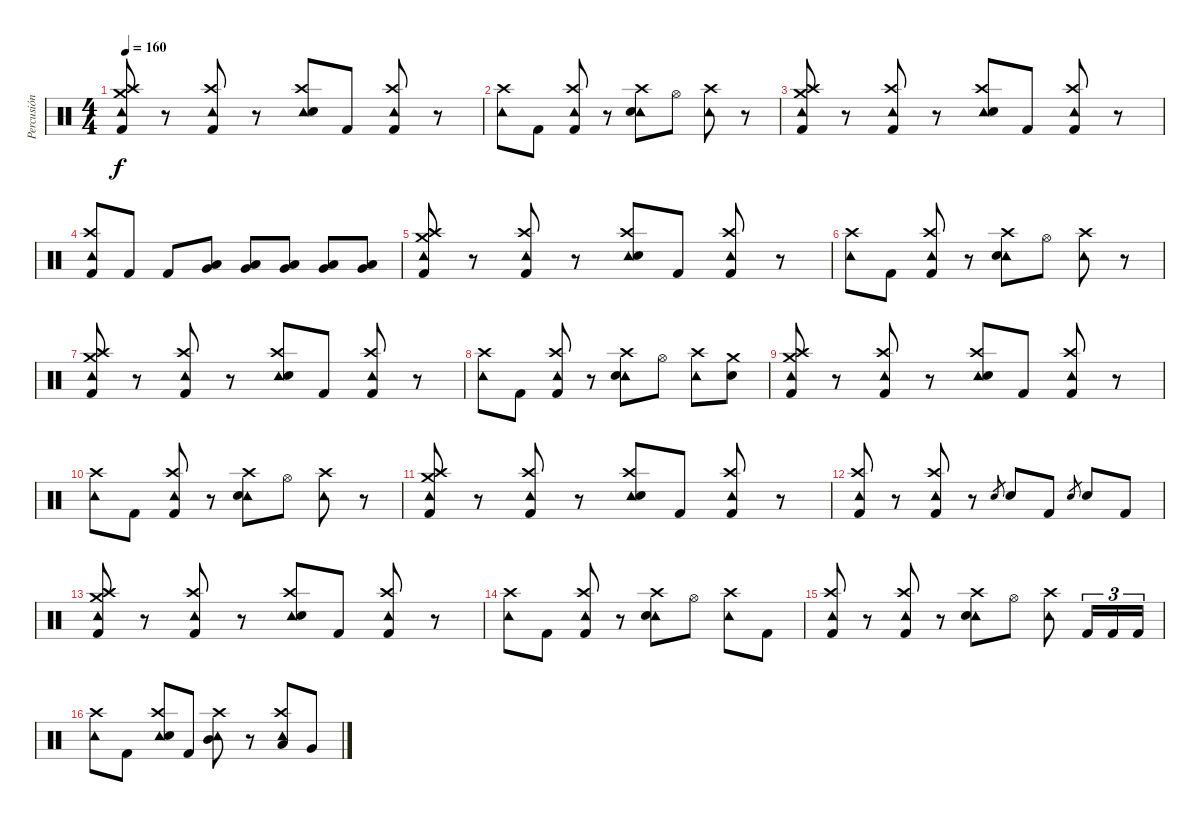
\track ("Percusión" "Percusión") {instrument percussion}
\staff {score}
\articulation defaults
\ts (4 4)
\tempo 160
\clef neutral
\ks c
("Tambourine (hit)" "Crash medium (hit)" "Crash high (hit)" "Kick (hit) 2").8{dy f} r.8 ("Tambourine (hit)" "Crash high (hit)" "Kick (hit) 2").8 r.8 ("Tambourine (hit)" "Crash high (hit)" "Electric Snare (hit)").8 "Kick (hit) 2".8 ("Tambourine (hit)" "Crash high (hit)" "Kick (hit) 2").8 r.8 |
("Tambourine (hit)" "Crash high (hit)").8 "Kick (hit) 2".8 ("Tambourine (hit)" "Crash high (hit)" "Kick (hit) 2").8 r.8 ("Tambourine (hit)" "Crash high (hit)" "Electric Snare (hit)").8 "Hi-Hat (open)".8 ("Tambourine (hit)" "Crash high (hit)").8 r.8 |
("Tambourine (hit)" "Crash medium (hit)" "Crash high (hit)" "Kick (hit) 2").8 r.8 ("Tambourine (hit)" "Crash high (hit)" "Kick (hit) 2").8 r.8 ("Tambourine (hit)" "Crash high (hit)" "Electric Snare (hit)").8 "Kick (hit) 2".8 ("Tambourine (hit)" "Crash high (hit)" "Kick (hit) 2").8 r.8 |
("Tambourine (hit)" "Crash high (hit)" "Kick (hit) 2").8 "Kick (hit) 2".8 "Kick (hit) 2".8 ("Low Tom (hit)" "Very Low Tom (hit)").8 ("Low Tom (hit)" "Very Low Tom (hit)").8 ("Low Tom (hit)" "Very Low Tom (hit)").8 ("Low Tom (hit)" "Very Low Tom (hit)").8 ("Low Tom (hit)" "Very Low Tom (hit)").8 |
("Tambourine (hit)" "Crash medium (hit)" "Crash high (hit)" "Kick (hit) 2").8 r.8 ("Tambourine (hit)" "Crash high (hit)" "Kick (hit) 2").8 r.8 ("Tambourine (hit)" "Crash high (hit)" "Electric Snare (hit)").8 "Kick (hit) 2".8 ("Tambourine (hit)" "Crash high (hit)" "Kick (hit) 2").8 r.8 |
("Tambourine (hit)" "Crash high (hit)").8 "Kick (hit) 2".8 ("Tambourine (hit)" "Crash high (hit)" "Kick (hit) 2").8 r.8 ("Tambourine (hit)" "Crash high (hit)" "Electric Snare (hit)").8 "Hi-Hat (open)".8 ("Tambourine (hit)" "Crash high (hit)").8 r.8 |
("Tambourine (hit)" "Crash medium (hit)" "Crash high (hit)" "Kick (hit) 2").8 r.8 ("Tambourine (hit)" "Crash high (hit)" "Kick (hit) 2").8 r.8 ("Tambourine (hit)" "Crash high (hit)" "Electric Snare (hit)").8 "Kick (hit) 2".8 ("Tambourine (hit)" "Crash high (hit)" "Kick (hit) 2").8 r.8 |
("Tambourine (hit)" "Crash high (hit)").8 "Kick (hit) 2".8 ("Tambourine (hit)" "Crash high (hit)" "Kick (hit) 2").8 r.8 ("Tambourine (hit)" "Crash high (hit)" "Electric Snare (hit)").8 "Hi-Hat (open)".8 ("Tambourine (hit)" "Crash high (hit)").8 ("Crash medium (hit)" "Electric Snare (hit)").8 |
("Tambourine (hit)" "Crash medium (hit)" "Crash high (hit)" "Kick (hit) 2").8 r.8 ("Tambourine (hit)" "Crash high (hit)" "Kick (hit) 2").8 r.8 ("Tambourine (hit)" "Crash high (hit)" "Electric Snare (hit)").8 "Kick (hit) 2".8 ("Tambourine (hit)" "Crash high (hit)" "Kick (hit) 2").8 r.8 |
("Tambourine (hit)" "Crash high (hit)").8 "Kick (hit) 2".8 ("Tambourine (hit)" "Crash high (hit)" "Kick (hit) 2").8 r.8 ("Tambourine (hit)" "Crash high (hit)" "Electric Snare (hit)").8 "Hi-Hat (open)".8 ("Tambourine (hit)" "Crash high (hit)").8 r.8 |
("Tambourine (hit)" "Crash medium (hit)" "Crash high (hit)" "Kick (hit) 2").8 r.8 ("Tambourine (hit)" "Crash high (hit)" "Kick (hit) 2").8 r.8 ("Tambourine (hit)" "Crash high (hit)" "Electric Snare (hit)").8 "Kick (hit) 2".8 ("Tambourine (hit)" "Crash high (hit)" "Kick (hit) 2").8 r.8 |
("Tambourine (hit)" "Crash high (hit)" "Kick (hit) 2").8 r.8 ("Tambourine (hit)" "Crash high (hit)" "Kick (hit) 2").8 r.8 "Electric Snare (hit)".8{gr} "Electric Snare (hit)".8 "Kick (hit) 2".8 "Electric Snare (hit)".8{gr} "Electric Snare (hit)".8 "Kick (hit) 2".8 |
("Tambourine (hit)" "Crash medium (hit)" "Crash high (hit)" "Kick (hit) 2").8 r.8 ("Tambourine (hit)" "Crash high (hit)" "Kick (hit) 2").8 r.8 ("Tambourine (hit)" "Crash high (hit)" "Electric Snare (hit)").8 "Kick (hit) 2".8 ("Tambourine (hit)" "Crash high (hit)" "Kick (hit) 2").8 r.8 |
("Tambourine (hit)" "Crash high (hit)").8 "Kick (hit) 2".8 ("Tambourine (hit)" "Crash high (hit)" "Kick (hit) 2").8 r.8 ("Tambourine (hit)" "Crash high (hit)" "Electric Snare (hit)").8 "Hi-Hat (open)".8 ("Tambourine (hit)" "Crash high (hit)").8 "Kick (hit) 2".8 |
("Tambourine (hit)" "Crash high (hit)" "Kick (hit) 2").8 r.8 ("Tambourine (hit)" "Crash high (hit)" "Kick (hit) 2").8 r.8 ("Tambourine (hit)" "Crash high (hit)" "Electric Snare (hit)").8 "Hi-Hat (open)".8 ("Tambourine (hit)" "Crash high (hit)").8 "Kick (hit) 2".16{tu (3 2)} "Kick (hit) 2".16{tu (3 2)} "Kick (hit) 2".16{tu (3 2)} |
("Tambourine (hit)" "Crash high (hit)").8 "Kick (hit) 2".8 ("Tambourine (hit)" "Crash high (hit)" "Electric Snare (hit)").8 "Kick (hit) 2".8 ("Tambourine (hit)" "Crash high (hit)" "Mid Tom (hit)").8 r.8 ("Tambourine (hit)" "Crash high (hit)" "Low Tom (hit)").8 "Very Low Tom (hit)".8
